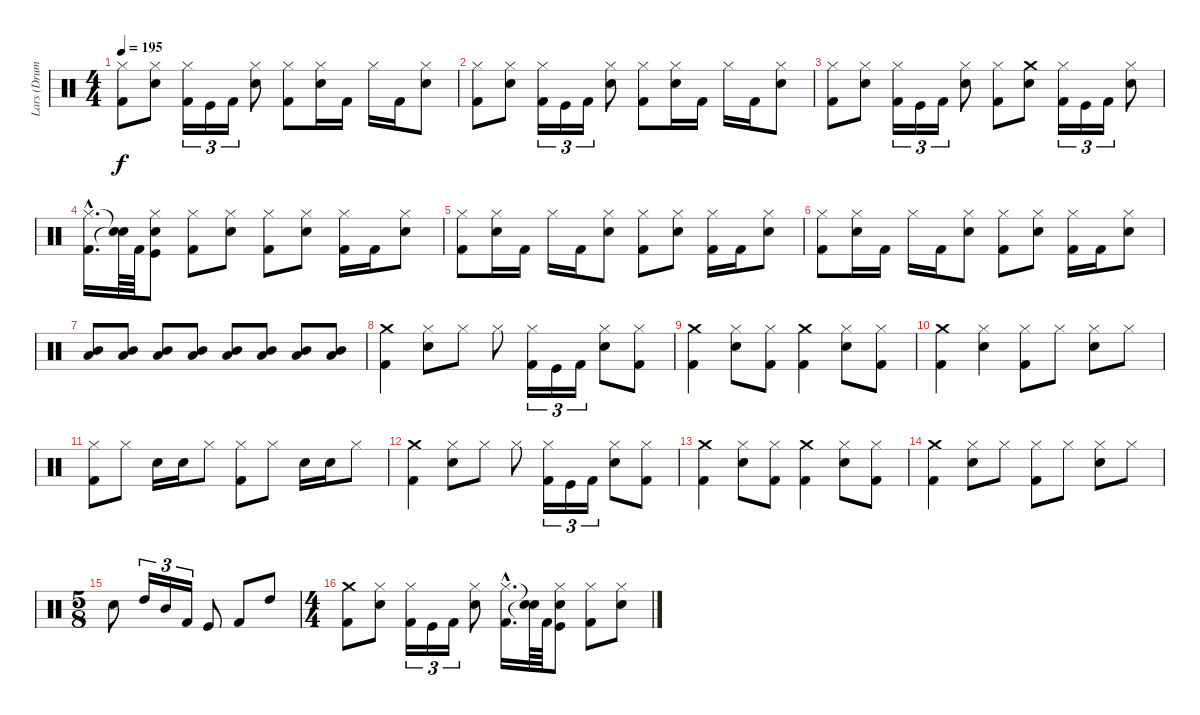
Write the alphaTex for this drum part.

\track ("Lars (Drums)" "Lars (Drum") {instrument percussion}
\staff {score}
\articulation defaults
\ts (4 4)
\tempo 195
\clef neutral
\ks c
("Kick (hit) 2" "Hi-Hat (closed)").8{dy f} ("Snare (hit) 2" "Hi-Hat (closed)").8 ("Kick (hit) 2" "Hi-Hat (closed)").16{tu (3 2)} "Kick (hit)".16{tu (3 2)} "Kick (hit) 2".16{tu (3 2)} ("Snare (hit) 2" "Hi-Hat (closed)").8 ("Kick (hit) 2" "Hi-Hat (closed)").8 ("Snare (hit) 2" "Hi-Hat (closed)").16 "Kick (hit) 2".16 "Hi-Hat (closed)".16 "Kick (hit) 2".16 ("Snare (hit) 2" "Hi-Hat (closed)").8 |
("Kick (hit) 2" "Hi-Hat (closed)").8 ("Snare (hit) 2" "Hi-Hat (closed)").8 ("Kick (hit) 2" "Hi-Hat (closed)").16{tu (3 2)} "Kick (hit)".16{tu (3 2)} "Kick (hit) 2".16{tu (3 2)} ("Snare (hit) 2" "Hi-Hat (closed)").8 ("Kick (hit) 2" "Hi-Hat (closed)").8 ("Snare (hit) 2" "Hi-Hat (closed)").16 "Kick (hit) 2".16 "Hi-Hat (closed)".16 "Kick (hit) 2".16 ("Snare (hit) 2" "Hi-Hat (closed)").8 |
("Kick (hit) 2" "Hi-Hat (closed)").8 ("Snare (hit) 2" "Hi-Hat (closed)").8 ("Kick (hit) 2" "Hi-Hat (closed)").16{tu (3 2)} "Kick (hit)".16{tu (3 2)} "Kick (hit) 2".16{tu (3 2)} ("Snare (hit) 2" "Hi-Hat (closed)").8 ("Kick (hit) 2" "Hi-Hat (closed)").8 ("Crash medium (hit)" "Snare (hit) 2").8 ("Kick (hit) 2" "Hi-Hat (closed)").16{tu (3 2)} "Kick (hit)".16{tu (3 2)} "Kick (hit) 2".16{tu (3 2)} ("Snare (hit) 2" "Hi-Hat (closed)").8 |
("Kick (hit) 2"{hac} "Hi-Hat (closed)"{hac}).16{d} ("Snare (hit)"{t} "Snare (hit)"{t}).64 "Kick (hit) 2".64 ("Kick (hit)" "Snare (hit) 2" "Hi-Hat (closed)").8 ("Kick (hit) 2" "Hi-Hat (closed)").8 ("Snare (hit) 2" "Hi-Hat (closed)").8 ("Kick (hit) 2" "Hi-Hat (closed)").8 ("Snare (hit) 2" "Hi-Hat (closed)").8 ("Kick (hit) 2" "Hi-Hat (closed)").16 "Kick (hit) 2".16 ("Snare (hit) 2" "Hi-Hat (closed)").8 |
("Hi-Hat (closed)" "Kick (hit) 2").8 ("Snare (hit) 2" "Hi-Hat (closed)").16 "Kick (hit) 2".16 "Hi-Hat (closed)".16 "Kick (hit) 2".16 ("Snare (hit) 2" "Hi-Hat (closed)").8 ("Hi-Hat (closed)" "Kick (hit) 2").8 ("Snare (hit) 2" "Hi-Hat (closed)").8 ("Hi-Hat (closed)" "Kick (hit) 2").16 "Kick (hit) 2".16 ("Snare (hit) 2" "Hi-Hat (closed)").8 |
("Hi-Hat (closed)" "Kick (hit) 2").8 ("Snare (hit) 2" "Hi-Hat (closed)").16 "Kick (hit) 2".16 "Hi-Hat (closed)".16 "Kick (hit) 2".16 ("Snare (hit) 2" "Hi-Hat (closed)").8 ("Hi-Hat (closed)" "Kick (hit) 2").8 ("Snare (hit) 2" "Hi-Hat (closed)").8 ("Hi-Hat (closed)" "Kick (hit) 2").16 "Kick (hit) 2".16 ("Snare (hit) 2" "Hi-Hat (closed)").8 |
("Mid Tom (hit)" "Low Tom (hit)").8 ("Mid Tom (hit)" "Low Tom (hit)").8 ("Mid Tom (hit)" "Low Tom (hit)").8 ("Mid Tom (hit)" "Low Tom (hit)").8 ("Mid Tom (hit)" "Low Tom (hit)").8 ("Mid Tom (hit)" "Low Tom (hit)").8 ("Mid Tom (hit)" "Low Tom (hit)").8 ("Mid Tom (hit)" "Low Tom (hit)").8 |
("Kick (hit) 2" "Crash medium (hit)").4 ("Snare (hit) 2" "Hi-Hat (closed)").8 "Hi-Hat (closed)".8 "Hi-Hat (closed)".8 ("Kick (hit) 2" "Hi-Hat (closed)").16{tu (3 2)} "Kick (hit)".16{tu (3 2)} "Kick (hit) 2".16{tu (3 2)} ("Snare (hit) 2" "Hi-Hat (closed)").8 ("Kick (hit) 2" "Hi-Hat (closed)").8 |
("Kick (hit) 2" "Crash medium (hit)").4 ("Hi-Hat (closed)" "Snare (hit) 2").8 ("Kick (hit) 2" "Hi-Hat (closed)").8 ("Crash medium (hit)" "Kick (hit) 2").4 ("Hi-Hat (closed)" "Snare (hit) 2").8 ("Kick (hit) 2" "Hi-Hat (closed)").8 |
("Kick (hit) 2" "Crash medium (hit)").4 ("Hi-Hat (closed)" "Snare (hit) 2").4 ("Hi-Hat (closed)" "Kick (hit) 2").8 "Hi-Hat (closed)".8 ("Snare (hit) 2" "Hi-Hat (closed)").8 "Hi-Hat (closed)".8 |
("Kick (hit) 2" "Hi-Hat (closed)").8 "Hi-Hat (closed)".8 "Snare (hit) 2".16 "Snare (hit) 2".16 "Hi-Hat (closed)".8 ("Kick (hit) 2" "Hi-Hat (closed)").8 "Hi-Hat (closed)".8 "Snare (hit) 2".16 "Snare (hit) 2".16 "Hi-Hat (closed)".8 |
("Kick (hit) 2" "Crash medium (hit)").4 ("Snare (hit) 2" "Hi-Hat (closed)").8 "Hi-Hat (closed)".8 "Hi-Hat (closed)".8 ("Kick (hit) 2" "Hi-Hat (closed)").16{tu (3 2)} "Kick (hit)".16{tu (3 2)} "Kick (hit) 2".16{tu (3 2)} ("Snare (hit) 2" "Hi-Hat (closed)").8 ("Kick (hit) 2" "Hi-Hat (closed)").8 |
("Kick (hit) 2" "Crash medium (hit)").4 ("Hi-Hat (closed)" "Snare (hit) 2").8 ("Kick (hit) 2" "Hi-Hat (closed)").8 ("Crash medium (hit)" "Kick (hit) 2").4 ("Hi-Hat (closed)" "Snare (hit) 2").8 ("Kick (hit) 2" "Hi-Hat (closed)").8 |
("Kick (hit) 2" "Crash medium (hit)").4 ("Hi-Hat (closed)" "Snare (hit) 2").8 "Hi-Hat (closed)".8 ("Hi-Hat (closed)" "Kick (hit) 2").8 "Hi-Hat (closed)".8 ("Snare (hit) 2" "Hi-Hat (closed)").8 "Hi-Hat (closed)".8 |
\ts (5 8)
"Snare (hit) 2".8 "High Tom (hit)".16{tu (3 2)} "Mid Tom (hit)".16{tu (3 2)} "Kick (hit) 2".16{tu (3 2)} "Kick (hit)".8 "Kick (hit) 2".8 "High Tom (hit)".8 |
\ts (4 4)
("Crash medium (hit)" "Kick (hit) 2").8 ("Snare (hit) 2" "Hi-Hat (closed)").8 ("Kick (hit) 2" "Hi-Hat (closed)").16{tu (3 2)} "Kick (hit)".16{tu (3 2)} "Kick (hit) 2".16{tu (3 2)} ("Snare (hit) 2" "Hi-Hat (closed)").8 ("Kick (hit) 2"{hac} "Hi-Hat (closed)"{hac}).16{d} ("Snare (hit)"{t} "Snare (hit)"{t}).64 "Kick (hit) 2".64 ("Kick (hit)" "Snare (hit) 2" "Hi-Hat (closed)").8 ("Kick (hit) 2" "Hi-Hat (closed)").8 ("Snare (hit) 2" "Hi-Hat (closed)").8
